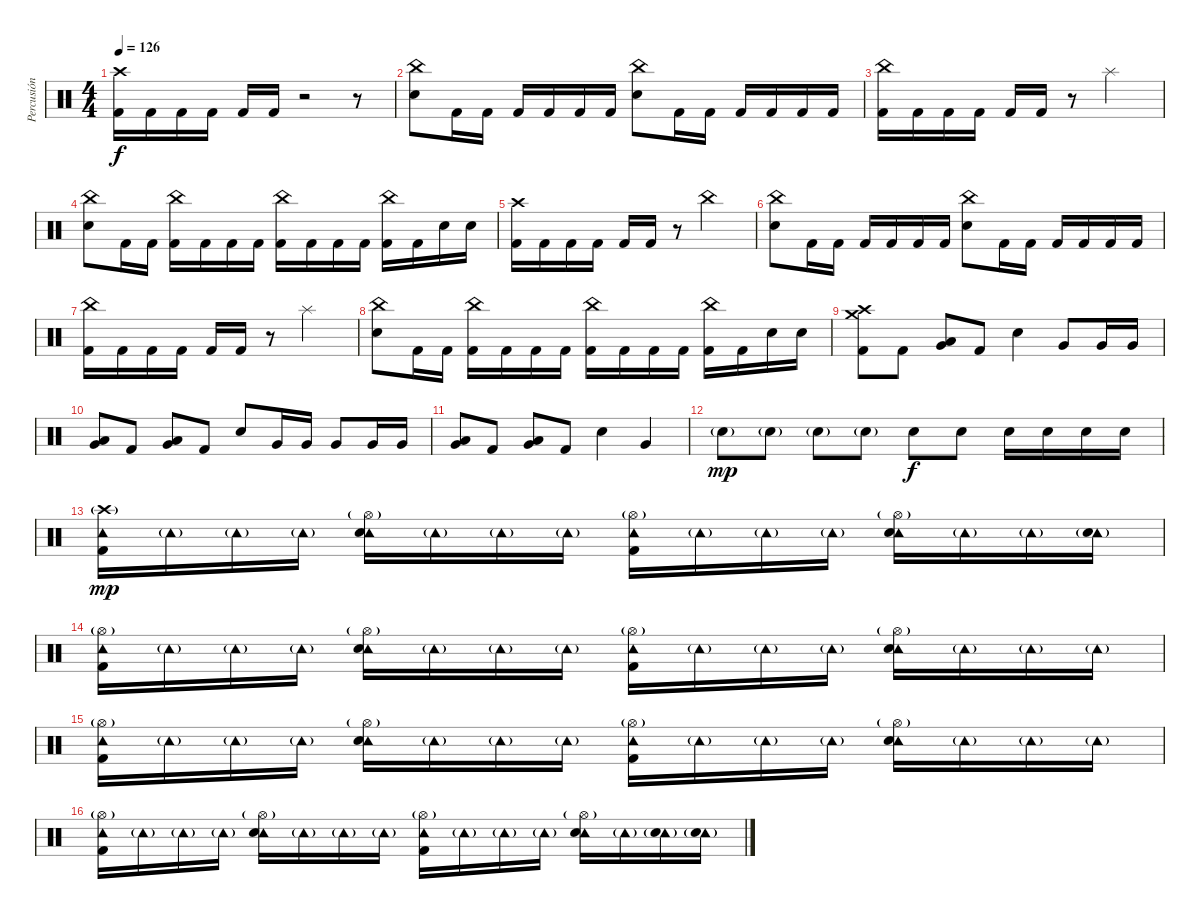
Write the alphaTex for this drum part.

\track ("Percusión" "Percusión") {instrument percussion}
\staff {score}
\articulation defaults
\ts (4 4)
\tempo 126
\clef neutral
\ks c
("Crash high (hit)" "Kick (hit) 2").16{dy f} "Kick (hit) 2".16 "Kick (hit) 2".16 "Kick (hit) 2".16 "Kick (hit) 2".16 "Kick (hit) 2".16 r.2 r.8 |
("China (hit)" "Electric Snare (hit)").8 "Kick (hit) 2".16 "Kick (hit) 2".16 "Kick (hit) 2".16 "Kick (hit) 2".16 "Kick (hit) 2".16 "Kick (hit) 2".16 ("China (hit)" "Electric Snare (hit)").8 "Kick (hit) 2".16 "Kick (hit) 2".16 "Kick (hit) 2".16 "Kick (hit) 2".16 "Kick (hit) 2".16 "Kick (hit) 2".16 |
("China (hit)" "Kick (hit) 2").16 "Kick (hit) 2".16 "Kick (hit) 2".16 "Kick (hit) 2".16 "Kick (hit) 2".16 "Kick (hit) 2".16 r.8 "Splash (hit)".2 |
("China (hit)" "Electric Snare (hit)").8 "Kick (hit) 2".16 "Kick (hit) 2".16 ("China (hit)" "Kick (hit) 2").16 "Kick (hit) 2".16 "Kick (hit) 2".16 "Kick (hit) 2".16 ("China (hit)" "Kick (hit) 2").16 "Kick (hit) 2".16 "Kick (hit) 2".16 "Kick (hit) 2".16 ("China (hit)" "Kick (hit) 2").16 "Kick (hit) 2".16 "Electric Snare (hit)".16 "Electric Snare (hit)".16 |
("Crash high (hit)" "Kick (hit) 2").16 "Kick (hit) 2".16 "Kick (hit) 2".16 "Kick (hit) 2".16 "Kick (hit) 2".16 "Kick (hit) 2".16 r.8 "China (hit)".2 |
("China (hit)" "Electric Snare (hit)").8 "Kick (hit) 2".16 "Kick (hit) 2".16 "Kick (hit) 2".16 "Kick (hit) 2".16 "Kick (hit) 2".16 "Kick (hit) 2".16 ("China (hit)" "Electric Snare (hit)").8 "Kick (hit) 2".16 "Kick (hit) 2".16 "Kick (hit) 2".16 "Kick (hit) 2".16 "Kick (hit) 2".16 "Kick (hit) 2".16 |
("China (hit)" "Kick (hit) 2").16 "Kick (hit) 2".16 "Kick (hit) 2".16 "Kick (hit) 2".16 "Kick (hit) 2".16 "Kick (hit) 2".16 r.8 "Splash (hit)".2 |
("China (hit)" "Electric Snare (hit)").8 "Kick (hit) 2".16 "Kick (hit) 2".16 ("China (hit)" "Kick (hit) 2").16 "Kick (hit) 2".16 "Kick (hit) 2".16 "Kick (hit) 2".16 ("China (hit)" "Kick (hit) 2").16 "Kick (hit) 2".16 "Kick (hit) 2".16 "Kick (hit) 2".16 ("China (hit)" "Kick (hit) 2").16 "Kick (hit) 2".16 "Electric Snare (hit)".16 "Electric Snare (hit)".16 |
("Crash high (hit)" "Crash medium (hit)" "Kick (hit) 2").8 "Kick (hit) 2".8 ("Low Floor Tom (hit)" "Very Low Tom (hit)").8 "Kick (hit) 2".8 "Electric Snare (hit)".4 "Very Low Tom (hit)".8 "Very Low Tom (hit)".16 "Very Low Tom (hit)".16 |
("Low Floor Tom (hit)" "Very Low Tom (hit)").8 "Kick (hit) 2".8 ("Low Floor Tom (hit)" "Very Low Tom (hit)").8 "Kick (hit) 2".8 "Electric Snare (hit)".8 "Very Low Tom (hit)".16 "Very Low Tom (hit)".16 "Very Low Tom (hit)".8 "Very Low Tom (hit)".16 "Very Low Tom (hit)".16 |
("Low Floor Tom (hit)" "Very Low Tom (hit)").8 "Kick (hit) 2".8 ("Low Floor Tom (hit)" "Very Low Tom (hit)").8 "Kick (hit) 2".8 "Electric Snare (hit)".4 "Very Low Tom (hit)".4 |
"Electric Snare (hit)"{g}.8{dy mp} "Electric Snare (hit)"{g}.8 "Electric Snare (hit)"{g}.8 "Electric Snare (hit)"{g}.8 "Electric Snare (hit)".8{dy f} "Electric Snare (hit)".8 "Electric Snare (hit)".16 "Electric Snare (hit)".16 "Electric Snare (hit)".16 "Electric Snare (hit)".16 |
("Tambourine (hit)" "Crash high (hit)"{g} "Kick (hit) 2").16{dy mp} "Tambourine (hit)"{g}.16 "Tambourine (hit)"{g}.16 "Tambourine (hit)"{g}.16 ("Tambourine (hit)" "Hi-Hat (open)"{g} "Electric Snare (hit)").16 "Tambourine (hit)"{g}.16 "Tambourine (hit)"{g}.16 "Tambourine (hit)"{g}.16 ("Tambourine (hit)" "Hi-Hat (open)"{g} "Kick (hit) 2").16 "Tambourine (hit)"{g}.16 "Tambourine (hit)"{g}.16 "Tambourine (hit)"{g}.16 ("Tambourine (hit)" "Hi-Hat (open)"{g} "Electric Snare (hit)").16 "Tambourine (hit)"{g}.16 "Tambourine (hit)"{g}.16 ("Tambourine (hit)"{g} "Electric Snare (hit)").16 |
("Tambourine (hit)" "Hi-Hat (open)"{g} "Kick (hit) 2").16 "Tambourine (hit)"{g}.16 "Tambourine (hit)"{g}.16 "Tambourine (hit)"{g}.16 ("Tambourine (hit)" "Hi-Hat (open)"{g} "Electric Snare (hit)").16 "Tambourine (hit)"{g}.16 "Tambourine (hit)"{g}.16 "Tambourine (hit)"{g}.16 ("Tambourine (hit)" "Hi-Hat (open)"{g} "Kick (hit) 2").16 "Tambourine (hit)"{g}.16 "Tambourine (hit)"{g}.16 "Tambourine (hit)"{g}.16 ("Tambourine (hit)" "Hi-Hat (open)"{g} "Electric Snare (hit)").16 "Tambourine (hit)"{g}.16 "Tambourine (hit)"{g}.16 "Tambourine (hit)"{g}.16 |
("Tambourine (hit)" "Hi-Hat (open)"{g} "Kick (hit) 2").16 "Tambourine (hit)"{g}.16 "Tambourine (hit)"{g}.16 "Tambourine (hit)"{g}.16 ("Tambourine (hit)" "Hi-Hat (open)"{g} "Electric Snare (hit)").16 "Tambourine (hit)"{g}.16 "Tambourine (hit)"{g}.16 "Tambourine (hit)"{g}.16 ("Tambourine (hit)" "Hi-Hat (open)"{g} "Kick (hit) 2").16 "Tambourine (hit)"{g}.16 "Tambourine (hit)"{g}.16 "Tambourine (hit)"{g}.16 ("Tambourine (hit)" "Hi-Hat (open)"{g} "Electric Snare (hit)").16 "Tambourine (hit)"{g}.16 "Tambourine (hit)"{g}.16 "Tambourine (hit)"{g}.16 |
("Tambourine (hit)" "Hi-Hat (open)"{g} "Kick (hit) 2").16 "Tambourine (hit)"{g}.16 "Tambourine (hit)"{g}.16 "Tambourine (hit)"{g}.16 ("Tambourine (hit)" "Hi-Hat (open)"{g} "Electric Snare (hit)").16 "Tambourine (hit)"{g}.16 "Tambourine (hit)"{g}.16 "Tambourine (hit)"{g}.16 ("Tambourine (hit)" "Hi-Hat (open)"{g} "Kick (hit) 2").16 "Tambourine (hit)"{g}.16 "Tambourine (hit)"{g}.16 "Tambourine (hit)"{g}.16 ("Tambourine (hit)" "Hi-Hat (open)"{g} "Electric Snare (hit)").16 "Tambourine (hit)"{g}.16 ("Tambourine (hit)"{g} "Electric Snare (hit)").16 ("Tambourine (hit)"{g} "Electric Snare (hit)").16
